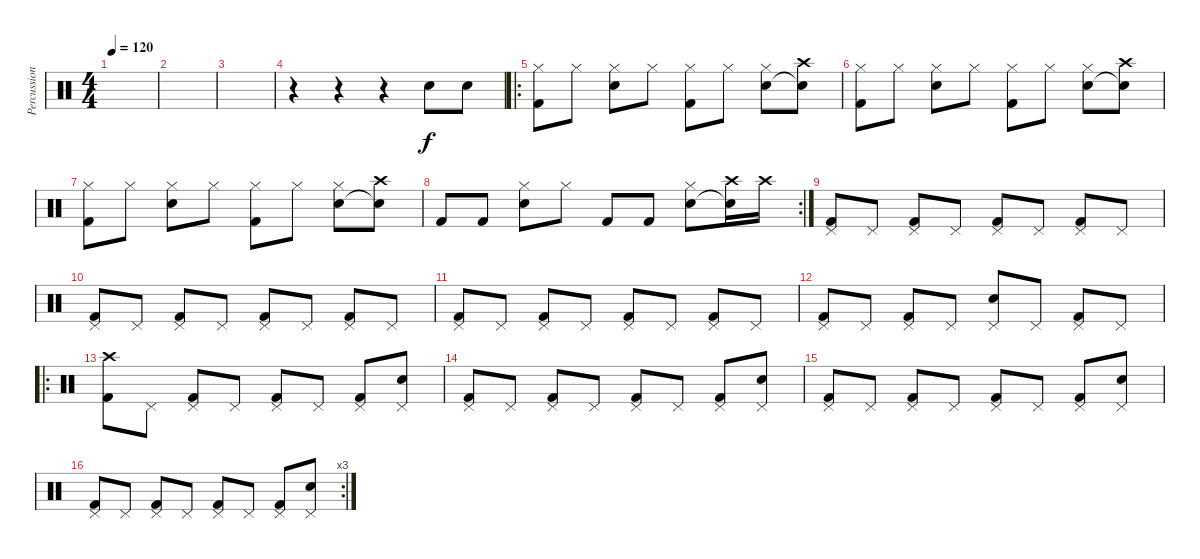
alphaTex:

\track ("Percussion" "Percussion") {instrument percussion}
\staff {score}
\articulation defaults
\ts (4 4)
\tempo 120
\clef neutral
\ks c
|
|
|
r.4 r.4 r.4 "Electric Snare (hit)".8 "Electric Snare (hit)".8 |
\ro
("Hi-Hat (closed)" "Kick (hit) 2").8 "Hi-Hat (closed)".8 ("Hi-Hat (closed)" "Electric Snare (hit)").8 "Hi-Hat (closed)".8 ("Hi-Hat (closed)" "Kick (hit) 2").8 "Hi-Hat (closed)".8 ("Hi-Hat (closed)" "Electric Snare (hit)").8 ("Crash high (hit)" "Electric Snare (hit)"{t}).8 |
("Hi-Hat (closed)" "Kick (hit) 2").8 "Hi-Hat (closed)".8 ("Hi-Hat (closed)" "Electric Snare (hit)").8 "Hi-Hat (closed)".8 ("Hi-Hat (closed)" "Kick (hit) 2").8 "Hi-Hat (closed)".8 ("Hi-Hat (closed)" "Electric Snare (hit)").8 ("Crash high (hit)" "Electric Snare (hit)"{t}).8 |
("Hi-Hat (closed)" "Kick (hit) 2").8 "Hi-Hat (closed)".8 ("Hi-Hat (closed)" "Electric Snare (hit)").8 "Hi-Hat (closed)".8 ("Hi-Hat (closed)" "Kick (hit) 2").8 "Hi-Hat (closed)".8 ("Hi-Hat (closed)" "Electric Snare (hit)").8 ("Crash high (hit)" "Electric Snare (hit)"{t}).8 |
\rc 2 "Kick (hit) 2".8 "Kick (hit) 2".8
("Hi-Hat (closed)" "Electric Snare (hit)").8 "Hi-Hat (closed)".8 "Kick (hit) 2".8 "Kick (hit) 2".8 ("Hi-Hat (closed)" "Electric Snare (hit)").8 ("Crash high (hit)" "Electric Snare (hit)"{t}).16 "Crash high (hit)".16 |
("Pedal Hi-Hat (hit)" "Kick (hit) 2").8 "Pedal Hi-Hat (hit)".8 ("Pedal Hi-Hat (hit)" "Kick (hit) 2").8 "Pedal Hi-Hat (hit)".8 ("Pedal Hi-Hat (hit)" "Kick (hit) 2").8 "Pedal Hi-Hat (hit)".8 ("Pedal Hi-Hat (hit)" "Kick (hit) 2").8 "Pedal Hi-Hat (hit)".8 |
("Pedal Hi-Hat (hit)" "Kick (hit) 2").8 "Pedal Hi-Hat (hit)".8 ("Pedal Hi-Hat (hit)" "Kick (hit) 2").8 "Pedal Hi-Hat (hit)".8 ("Pedal Hi-Hat (hit)" "Kick (hit) 2").8 "Pedal Hi-Hat (hit)".8 ("Pedal Hi-Hat (hit)" "Kick (hit) 2").8 "Pedal Hi-Hat (hit)".8 |
("Pedal Hi-Hat (hit)" "Kick (hit) 2").8 "Pedal Hi-Hat (hit)".8 ("Pedal Hi-Hat (hit)" "Kick (hit) 2").8 "Pedal Hi-Hat (hit)".8 ("Pedal Hi-Hat (hit)" "Kick (hit) 2").8 "Pedal Hi-Hat (hit)".8 ("Pedal Hi-Hat (hit)" "Kick (hit) 2").8 "Pedal Hi-Hat (hit)".8 |
("Pedal Hi-Hat (hit)" "Kick (hit) 2").8 "Pedal Hi-Hat (hit)".8 ("Pedal Hi-Hat (hit)" "Kick (hit) 2").8 "Pedal Hi-Hat (hit)".8 ("Pedal Hi-Hat (hit)" "Electric Snare (hit)").8 "Pedal Hi-Hat (hit)".8 ("Pedal Hi-Hat (hit)" "Kick (hit) 2").8 "Pedal Hi-Hat (hit)".8 |
\ro
("Crash high (hit)" "Kick (hit) 2").8 "Pedal Hi-Hat (hit)".8 ("Pedal Hi-Hat (hit)" "Kick (hit) 2").8 "Pedal Hi-Hat (hit)".8 ("Pedal Hi-Hat (hit)" "Kick (hit) 2").8 "Pedal Hi-Hat (hit)".8 ("Pedal Hi-Hat (hit)" "Kick (hit) 2").8 ("Pedal Hi-Hat (hit)" "Snare (hit) 2").8 |
("Pedal Hi-Hat (hit)" "Kick (hit) 2").8 "Pedal Hi-Hat (hit)".8 ("Pedal Hi-Hat (hit)" "Kick (hit) 2").8 "Pedal Hi-Hat (hit)".8 ("Pedal Hi-Hat (hit)" "Kick (hit) 2").8 "Pedal Hi-Hat (hit)".8 ("Pedal Hi-Hat (hit)" "Kick (hit) 2").8 ("Pedal Hi-Hat (hit)" "Snare (hit) 2").8 |
("Pedal Hi-Hat (hit)" "Kick (hit) 2").8 "Pedal Hi-Hat (hit)".8 ("Pedal Hi-Hat (hit)" "Kick (hit) 2").8 "Pedal Hi-Hat (hit)".8 ("Pedal Hi-Hat (hit)" "Kick (hit) 2").8 "Pedal Hi-Hat (hit)".8 ("Pedal Hi-Hat (hit)" "Kick (hit) 2").8 ("Pedal Hi-Hat (hit)" "Snare (hit) 2").8 |
\rc 3
("Pedal Hi-Hat (hit)" "Kick (hit) 2").8 "Pedal Hi-Hat (hit)".8 ("Pedal Hi-Hat (hit)" "Kick (hit) 2").8 "Pedal Hi-Hat (hit)".8 ("Pedal Hi-Hat (hit)" "Kick (hit) 2").8 "Pedal Hi-Hat (hit)".8 ("Pedal Hi-Hat (hit)" "Kick (hit) 2").8 ("Pedal Hi-Hat (hit)" "Snare (hit) 2").8
